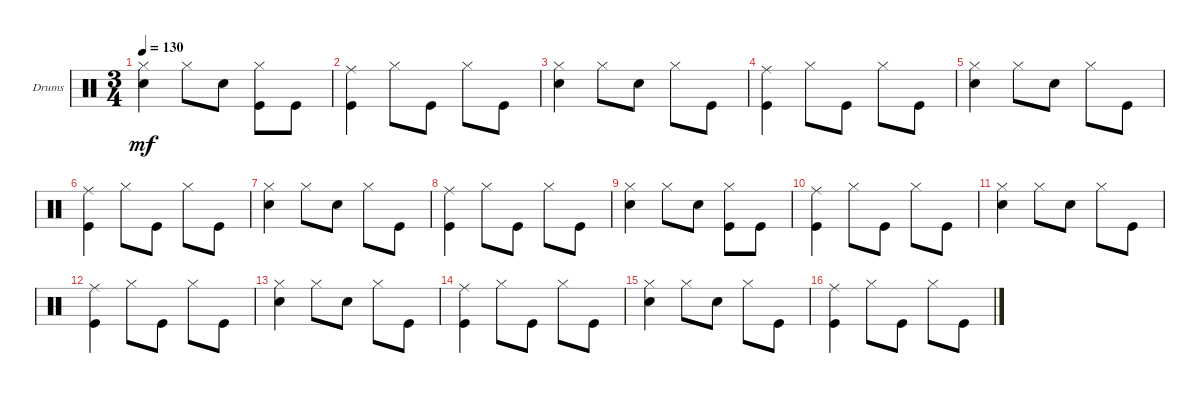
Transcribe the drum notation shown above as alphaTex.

\defaultSystemsLayout 4
\bracketExtendMode groupsimilarinstruments
\firstSystemTrackNameOrientation horizontal
\otherSystemsTrackNameOrientation horizontal
\chordDiagramsInScore
\track ("Drumkit" "Drums") {instrument percussion}
\staff {score}
\articulation defaults
\ts (3 4)
\tempo 130
\clef neutral
\ks c
("Hi-Hat (closed)" "Snare (hit) 2").4{dy mf} "Hi-Hat (closed)".8 "Snare (hit) 2".8 ("Kick (hit)" "Hi-Hat (closed)").8 "Kick (hit)".8 |
("Kick (hit)" "Ride (middle)").4 "Hi-Hat (closed)".8 "Kick (hit)".8 "Hi-Hat (closed)".8 "Kick (hit)".8 |
("Hi-Hat (closed)" "Snare (hit) 2").4 "Hi-Hat (closed)".8 "Snare (hit) 2".8 "Hi-Hat (closed)".8 "Kick (hit)".8 |
("Kick (hit)" "Ride (middle)").4 "Hi-Hat (closed)".8 "Kick (hit)".8 "Hi-Hat (closed)".8 "Kick (hit)".8 |
("Hi-Hat (closed)" "Snare (hit) 2").4 "Hi-Hat (closed)".8 "Snare (hit) 2".8 "Hi-Hat (closed)".8 "Kick (hit)".8 |
("Kick (hit)" "Ride (middle)").4 "Hi-Hat (closed)".8 "Kick (hit)".8 "Hi-Hat (closed)".8 "Kick (hit)".8 |
("Hi-Hat (closed)" "Snare (hit) 2").4 "Hi-Hat (closed)".8 "Snare (hit) 2".8 "Hi-Hat (closed)".8 "Kick (hit)".8 |
("Kick (hit)" "Ride (middle)").4 "Hi-Hat (closed)".8 "Kick (hit)".8 "Hi-Hat (closed)".8 "Kick (hit)".8 |
("Hi-Hat (closed)" "Snare (hit) 2").4 "Hi-Hat (closed)".8 "Snare (hit) 2".8 ("Kick (hit)" "Hi-Hat (closed)").8 "Kick (hit)".8 |
("Kick (hit)" "Ride (middle)").4 "Hi-Hat (closed)".8 "Kick (hit)".8 "Hi-Hat (closed)".8 "Kick (hit)".8 |
("Hi-Hat (closed)" "Snare (hit) 2").4 "Hi-Hat (closed)".8 "Snare (hit) 2".8 "Hi-Hat (closed)".8 "Kick (hit)".8 |
("Kick (hit)" "Ride (middle)").4 "Hi-Hat (closed)".8 "Kick (hit)".8 "Hi-Hat (closed)".8 "Kick (hit)".8 |
("Hi-Hat (closed)" "Snare (hit) 2").4 "Hi-Hat (closed)".8 "Snare (hit) 2".8 "Hi-Hat (closed)".8 "Kick (hit)".8 |
("Kick (hit)" "Ride (middle)").4 "Hi-Hat (closed)".8 "Kick (hit)".8 "Hi-Hat (closed)".8 "Kick (hit)".8 |
("Hi-Hat (closed)" "Snare (hit) 2").4 "Hi-Hat (closed)".8 "Snare (hit) 2".8 "Hi-Hat (closed)".8 "Kick (hit)".8 |
("Kick (hit)" "Ride (middle)").4 "Hi-Hat (closed)".8 "Kick (hit)".8 "Hi-Hat (closed)".8 "Kick (hit)".8
